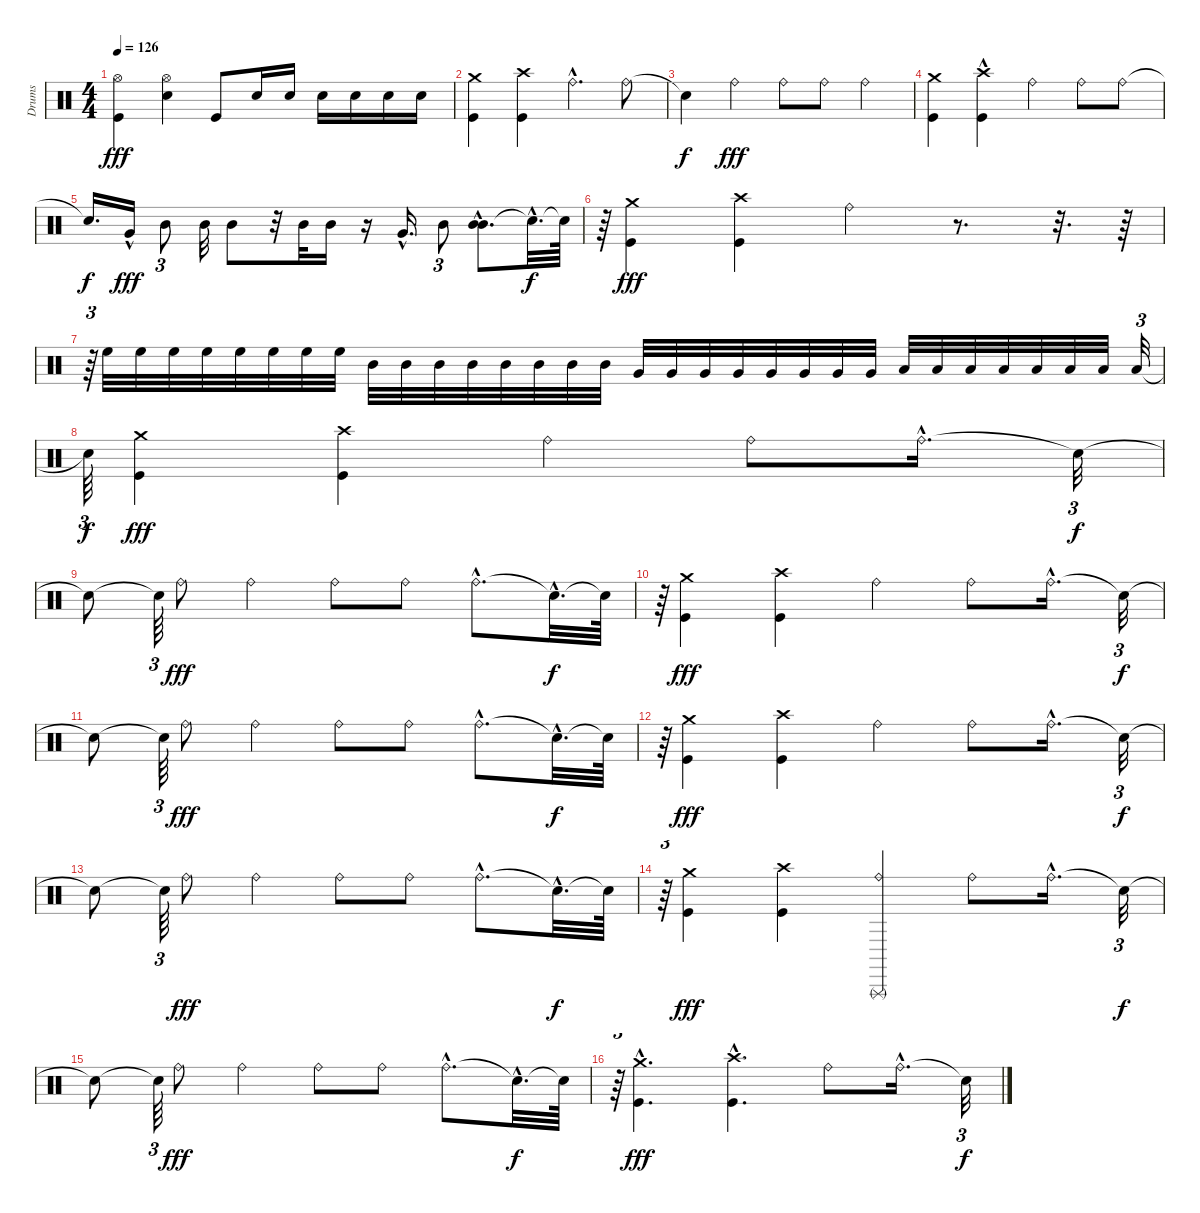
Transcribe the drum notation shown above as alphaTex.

\track ("Drums" "Drums") {instrument percussion}
\staff {score}
\articulation defaults
\ts (4 4)
\tempo 126
\clef neutral
\ks c
("Kick (hit)" "Hi-Hat (open)").4{dy fff} ("Snare (hit) 2" "Hi-Hat (open)").4 "Kick (hit)".8 "Snare (hit) 2".16 "Snare (hit) 2".16 "Snare (hit) 2".16 "Snare (hit) 2".16 "Snare (hit) 2".16 "Snare (hit) 2".16 |
("Kick (hit)" "Crash medium (hit)").4 ("Kick (hit)" "Crash high (hit)").4 "Ride (bell)"{hac}.4{d} "Ride (bell)".8 |
"Snare (hit)"{t}.4{dy f} "Ride (bell)".4{dy fff} "Ride (bell)".8 "Ride (bell)".8 "Ride (bell)".4 |
("Kick (hit)" "Crash medium (hit)").4 ("Kick (hit)"{hac} "Crash high (hit)").4 "Ride (bell)".4 "Ride (bell)".8 "Ride (bell)".8 |
"Snare (hit)"{t}.16{d dy f} "Very Low Tom (hit)"{hac}.16{dy fff} "Mid Tom (hit)".8{tu (3 2)} "Mid Tom (hit)".32 "Mid Tom (hit)".8 r.32 "Mid Tom (hit)".32 "Mid Tom (hit)".16 r.16 "Very Low Tom (hit)"{hac}.16{d} "Mid Tom (hit)".8{tu (3 2)} ("Mid Tom (hit)" "Mid Tom (hit)"{hac}).8{d} "Snare (hit)"{hac t}.32{d dy f} "Snare (hit)"{t}.64 |
r.64{tu (3 2)} ("Kick (hit)" "Crash medium (hit)").4{dy fff} ("Kick (hit)" "Crash high (hit)").4 "Ride (bell)".4 r.8{d} r.32{d} r.64 |
r.64{tu (3 2)} "High Floor Tom (hit)".32 "High Floor Tom (hit)".32 "High Floor Tom (hit)".32 "High Floor Tom (hit)".32 "High Floor Tom (hit)".32 "High Floor Tom (hit)".32 "High Floor Tom (hit)".32 "High Floor Tom (hit)".32 "Mid Tom (hit)".32 "Mid Tom (hit)".32 "Mid Tom (hit)".32 "Mid Tom (hit)".32 "Mid Tom (hit)".32 "Mid Tom (hit)".32 "Mid Tom (hit)".32 "Mid Tom (hit)".32 "Very Low Tom (hit)".32 "Very Low Tom (hit)".32 "Very Low Tom (hit)".32 "Very Low Tom (hit)".32 "Very Low Tom (hit)".32 "Very Low Tom (hit)".32 "Very Low Tom (hit)".32 "Very Low Tom (hit)".32 "Low Floor Tom (hit)".32 "Low Floor Tom (hit)".32 "Low Floor Tom (hit)".32 "Low Floor Tom (hit)".32 "Low Floor Tom (hit)".32 "Low Floor Tom (hit)".32 "Low Floor Tom (hit)".32 "Low Floor Tom (hit)".32{tu (3 2)} |
"Snare (hit)"{t}.64{tu (3 2) dy f} ("Kick (hit)" "Crash medium (hit)").4{dy fff} ("Kick (hit)" "Crash high (hit)").4 "Ride (bell)".4 "Ride (bell)".8 "Ride (bell)"{hac}.16{d} "Snare (hit)"{t}.32{tu (3 2) dy f} |
"Snare (hit)"{t}.8 "Snare (hit)"{t}.64{tu (3 2)} "Ride (bell)".8{dy fff} "Ride (bell)".4 "Ride (bell)".8 "Ride (bell)".8 "Ride (bell)"{hac}.8{d} "Snare (hit)"{hac t}.32{d dy f} "Snare (hit)"{t}.64 |
r.64{tu (3 2)} ("Kick (hit)" "Crash medium (hit)").4{dy fff} ("Kick (hit)" "Crash high (hit)").4 "Ride (bell)".4 "Ride (bell)".8 "Ride (bell)"{hac}.16{d} "Snare (hit)"{t}.32{tu (3 2) dy f} |
"Snare (hit)"{t}.8 "Snare (hit)"{t}.64{tu (3 2)} "Ride (bell)".8{dy fff} "Ride (bell)".4 "Ride (bell)".8 "Ride (bell)".8 "Ride (bell)"{hac}.8{d} "Snare (hit)"{hac t}.32{d dy f} "Snare (hit)"{t}.64 |
r.64{tu (3 2)} ("Kick (hit)" "Crash medium (hit)").4{dy fff} ("Kick (hit)" "Crash high (hit)").4 "Ride (bell)".4 "Ride (bell)".8 "Ride (bell)"{hac}.16{d} "Snare (hit)"{t}.32{tu (3 2) dy f} |
"Snare (hit)"{t}.8 "Snare (hit)"{t}.64{tu (3 2)} "Ride (bell)".8{dy fff} "Ride (bell)".4 "Ride (bell)".8 "Ride (bell)".8 "Ride (bell)"{hac}.8{d} "Snare (hit)"{hac t}.32{d dy f} "Snare (hit)"{t}.64 |
r.64{tu (3 2)} ("Kick (hit)" "Crash medium (hit)").4{dy fff} ("Kick (hit)" "Crash high (hit)").4 ("Ride (bell)" "Triangle (rnute)").4 "Ride (bell)".8 "Ride (bell)"{hac}.16{d} "Snare (hit)"{t}.32{tu (3 2) dy f} |
"Snare (hit)"{t}.8 "Snare (hit)"{t}.64{tu (3 2)} "Ride (bell)".8{dy fff} "Ride (bell)".4 "Ride (bell)".8 "Ride (bell)".8 "Ride (bell)"{hac}.8{d} "Snare (hit)"{hac t}.32{d dy f} "Snare (hit)"{t}.64 |
r.64{tu (3 2)} ("Kick (hit)"{hac} "Crash medium (hit)"{hac}).4{d dy fff} ("Kick (hit)" "Crash high (hit)"{hac}).4{d} "Ride (bell)".8 "Ride (bell)"{hac}.16{d} "Snare (hit)"{t}.32{tu (3 2) dy f}
